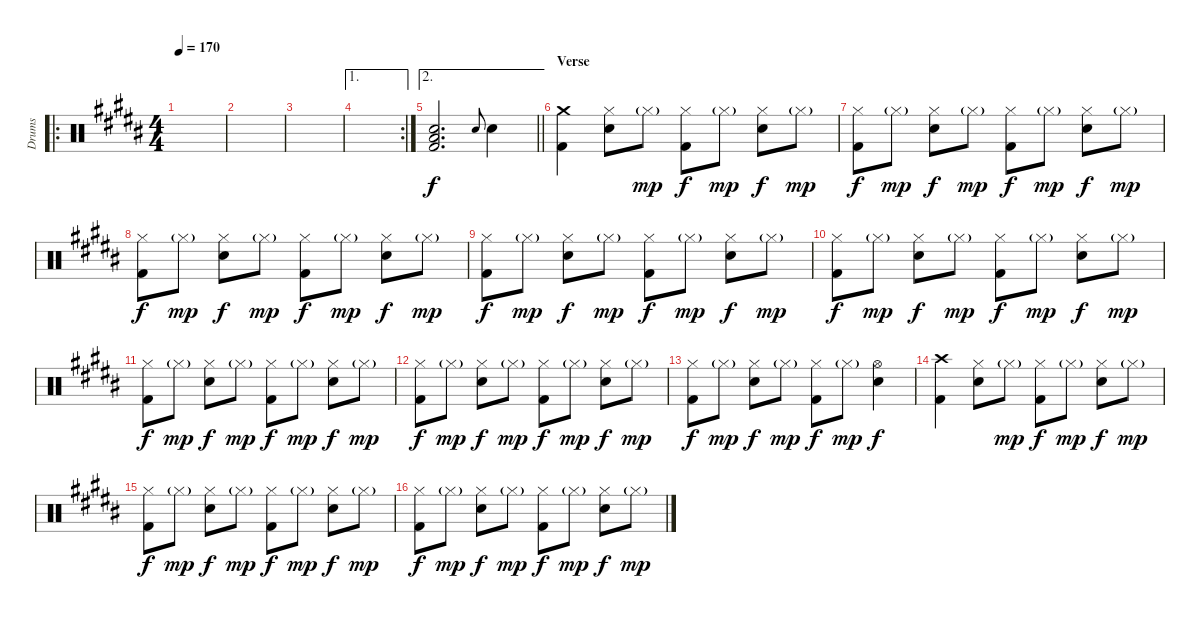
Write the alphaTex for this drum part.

\track ("Drums" "Drums") {instrument percussion}
\staff {score}
\articulation defaults
\ro
\ts (4 4)
\tempo 170
\clef neutral
\ks b
|
|
|
\ae 1
\rc 2
|
\ae 2
\barLineRight lightlight
("Low Floor Tom (hit)" "Electric Snare (hit)" "Kick (hit) 2").2{d} "Electric Snare (hit)".8{gr onbeat} "Electric Snare (hit)".4 |
\section ("" "Verse")
("Crash medium (hit)" "Kick (hit) 2").4 ("Hi-Hat (closed)" "Electric Snare (hit)").8 "Hi-Hat (closed)"{g}.8{dy mp} ("Hi-Hat (closed)" "Kick (hit) 2").8{dy f} "Hi-Hat (closed)"{g}.8{dy mp} ("Hi-Hat (closed)" "Electric Snare (hit)").8{dy f} "Hi-Hat (closed)"{g}.8{dy mp} |
("Hi-Hat (closed)" "Kick (hit) 2").8{dy f} "Hi-Hat (closed)"{g}.8{dy mp} ("Hi-Hat (closed)" "Electric Snare (hit)").8{dy f} "Hi-Hat (closed)"{g}.8{dy mp} ("Hi-Hat (closed)" "Kick (hit) 2").8{dy f} "Hi-Hat (closed)"{g}.8{dy mp} ("Hi-Hat (closed)" "Electric Snare (hit)").8{dy f} "Hi-Hat (closed)"{g}.8{dy mp} |
("Hi-Hat (closed)" "Kick (hit) 2").8{dy f} "Hi-Hat (closed)"{g}.8{dy mp} ("Hi-Hat (closed)" "Electric Snare (hit)").8{dy f} "Hi-Hat (closed)"{g}.8{dy mp} ("Hi-Hat (closed)" "Kick (hit) 2").8{dy f} "Hi-Hat (closed)"{g}.8{dy mp} ("Hi-Hat (closed)" "Electric Snare (hit)").8{dy f} "Hi-Hat (closed)"{g}.8{dy mp} |
("Hi-Hat (closed)" "Kick (hit) 2").8{dy f} "Hi-Hat (closed)"{g}.8{dy mp} ("Hi-Hat (closed)" "Electric Snare (hit)").8{dy f} "Hi-Hat (closed)"{g}.8{dy mp} ("Hi-Hat (closed)" "Kick (hit) 2").8{dy f} "Hi-Hat (closed)"{g}.8{dy mp} ("Hi-Hat (closed)" "Electric Snare (hit)").8{dy f} "Hi-Hat (closed)"{g}.8{dy mp} |
("Hi-Hat (closed)" "Kick (hit) 2").8{dy f} "Hi-Hat (closed)"{g}.8{dy mp} ("Hi-Hat (closed)" "Electric Snare (hit)").8{dy f} "Hi-Hat (closed)"{g}.8{dy mp} ("Hi-Hat (closed)" "Kick (hit) 2").8{dy f} "Hi-Hat (closed)"{g}.8{dy mp} ("Hi-Hat (closed)" "Electric Snare (hit)").8{dy f} "Hi-Hat (closed)"{g}.8{dy mp} |
("Hi-Hat (closed)" "Kick (hit) 2").8{dy f} "Hi-Hat (closed)"{g}.8{dy mp} ("Hi-Hat (closed)" "Electric Snare (hit)").8{dy f} "Hi-Hat (closed)"{g}.8{dy mp} ("Hi-Hat (closed)" "Kick (hit) 2").8{dy f} "Hi-Hat (closed)"{g}.8{dy mp} ("Hi-Hat (closed)" "Electric Snare (hit)").8{dy f} "Hi-Hat (closed)"{g}.8{dy mp} |
("Hi-Hat (closed)" "Kick (hit) 2").8{dy f} "Hi-Hat (closed)"{g}.8{dy mp} ("Hi-Hat (closed)" "Electric Snare (hit)").8{dy f} "Hi-Hat (closed)"{g}.8{dy mp} ("Hi-Hat (closed)" "Kick (hit) 2").8{dy f} "Hi-Hat (closed)"{g}.8{dy mp} ("Hi-Hat (closed)" "Electric Snare (hit)").8{dy f} "Hi-Hat (closed)"{g}.8{dy mp} |
("Hi-Hat (closed)" "Kick (hit) 2").8{dy f} "Hi-Hat (closed)"{g}.8{dy mp} ("Hi-Hat (closed)" "Electric Snare (hit)").8{dy f} "Hi-Hat (closed)"{g}.8{dy mp} ("Hi-Hat (closed)" "Kick (hit) 2").8{dy f} "Hi-Hat (closed)"{g}.8{dy mp} ("Hi-Hat (open)" "Electric Snare (hit)").4{dy f} |
("Crash high (hit)" "Kick (hit) 2").4 ("Hi-Hat (closed)" "Electric Snare (hit)").8 "Hi-Hat (closed)"{g}.8{dy mp} ("Hi-Hat (closed)" "Kick (hit) 2").8{dy f} "Hi-Hat (closed)"{g}.8{dy mp} ("Hi-Hat (closed)" "Electric Snare (hit)").8{dy f} "Hi-Hat (closed)"{g}.8{dy mp} |
("Hi-Hat (closed)" "Kick (hit) 2").8{dy f} "Hi-Hat (closed)"{g}.8{dy mp} ("Hi-Hat (closed)" "Electric Snare (hit)").8{dy f} "Hi-Hat (closed)"{g}.8{dy mp} ("Hi-Hat (closed)" "Kick (hit) 2").8{dy f} "Hi-Hat (closed)"{g}.8{dy mp} ("Hi-Hat (closed)" "Electric Snare (hit)").8{dy f} "Hi-Hat (closed)"{g}.8{dy mp} |
("Hi-Hat (closed)" "Kick (hit) 2").8{dy f} "Hi-Hat (closed)"{g}.8{dy mp} ("Hi-Hat (closed)" "Electric Snare (hit)").8{dy f} "Hi-Hat (closed)"{g}.8{dy mp} ("Hi-Hat (closed)" "Kick (hit) 2").8{dy f} "Hi-Hat (closed)"{g}.8{dy mp} ("Hi-Hat (closed)" "Electric Snare (hit)").8{dy f} "Hi-Hat (closed)"{g}.8{dy mp}
